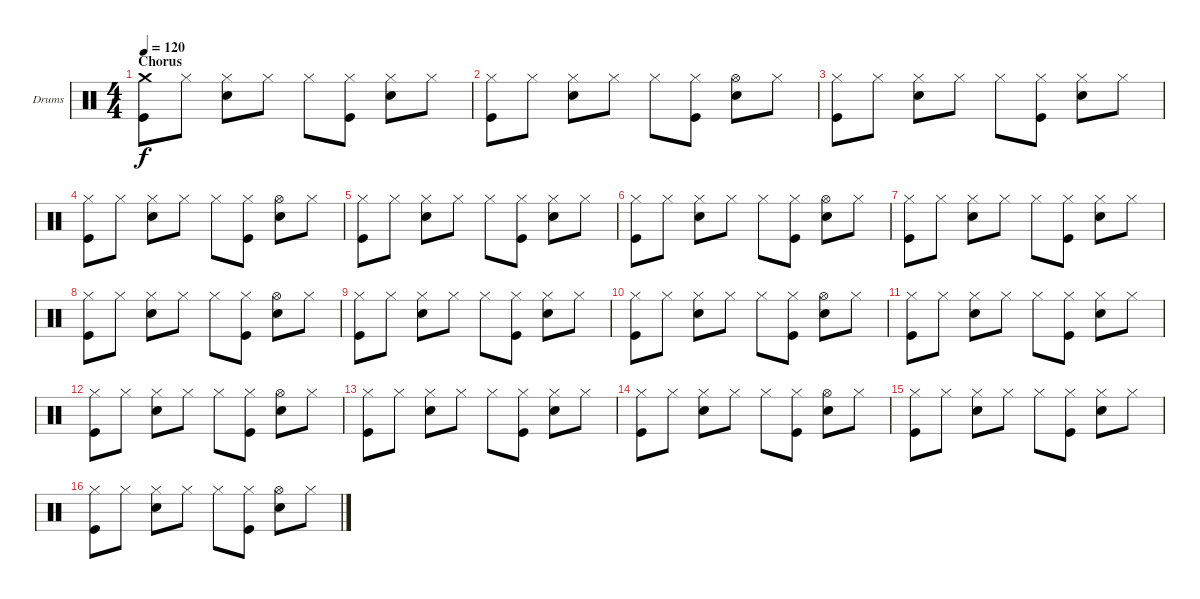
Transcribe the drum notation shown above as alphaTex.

\defaultSystemsLayout 4
\bracketExtendMode groupsimilarinstruments
\firstSystemTrackNameOrientation horizontal
\otherSystemsTrackNameOrientation horizontal
\track ("Drums" "Drums") {instrument percussion}
\staff {score}
\articulation defaults
\ts (4 4)
\section ("" "Chorus")
\tempo 120
\clef neutral
\ks c
("Kick (hit)" "Crash medium (hit)").8{dy f} "Hi-Hat (closed)".8 ("Snare (hit) 2" "Hi-Hat (closed)").8 "Hi-Hat (closed)".8 "Hi-Hat (closed)".8 ("Kick (hit)" "Hi-Hat (closed)").8 ("Snare (hit) 2" "Hi-Hat (closed)").8 "Hi-Hat (closed)".8 |
("Kick (hit)" "Hi-Hat (closed)").8 "Hi-Hat (closed)".8 ("Snare (hit) 2" "Hi-Hat (closed)").8 "Hi-Hat (closed)".8 "Hi-Hat (closed)".8 ("Kick (hit)" "Hi-Hat (closed)").8 ("Snare (hit) 2" "Hi-Hat (open)").8 "Hi-Hat (closed)".8 |
("Kick (hit)" "Hi-Hat (closed)").8 "Hi-Hat (closed)".8 ("Snare (hit) 2" "Hi-Hat (closed)").8 "Hi-Hat (closed)".8 "Hi-Hat (closed)".8 ("Kick (hit)" "Hi-Hat (closed)").8 ("Snare (hit) 2" "Hi-Hat (closed)").8 "Hi-Hat (closed)".8 |
("Kick (hit)" "Hi-Hat (closed)").8 "Hi-Hat (closed)".8 ("Snare (hit) 2" "Hi-Hat (closed)").8 "Hi-Hat (closed)".8 "Hi-Hat (closed)".8 ("Kick (hit)" "Hi-Hat (closed)").8 ("Snare (hit) 2" "Hi-Hat (open)").8 "Hi-Hat (closed)".8 |
("Kick (hit)" "Hi-Hat (closed)").8 "Hi-Hat (closed)".8 ("Snare (hit) 2" "Hi-Hat (closed)").8 "Hi-Hat (closed)".8 "Hi-Hat (closed)".8 ("Kick (hit)" "Hi-Hat (closed)").8 ("Snare (hit) 2" "Hi-Hat (closed)").8 "Hi-Hat (closed)".8 |
("Kick (hit)" "Hi-Hat (closed)").8 "Hi-Hat (closed)".8 ("Snare (hit) 2" "Hi-Hat (closed)").8 "Hi-Hat (closed)".8 "Hi-Hat (closed)".8 ("Kick (hit)" "Hi-Hat (closed)").8 ("Snare (hit) 2" "Hi-Hat (open)").8 "Hi-Hat (closed)".8 |
("Kick (hit)" "Hi-Hat (closed)").8 "Hi-Hat (closed)".8 ("Snare (hit) 2" "Hi-Hat (closed)").8 "Hi-Hat (closed)".8 "Hi-Hat (closed)".8 ("Kick (hit)" "Hi-Hat (closed)").8 ("Snare (hit) 2" "Hi-Hat (closed)").8 "Hi-Hat (closed)".8 |
("Kick (hit)" "Hi-Hat (closed)").8 "Hi-Hat (closed)".8 ("Snare (hit) 2" "Hi-Hat (closed)").8 "Hi-Hat (closed)".8 "Hi-Hat (closed)".8 ("Kick (hit)" "Hi-Hat (closed)").8 ("Snare (hit) 2" "Hi-Hat (open)").8 "Hi-Hat (closed)".8 |
("Kick (hit)" "Hi-Hat (closed)").8 "Hi-Hat (closed)".8 ("Snare (hit) 2" "Hi-Hat (closed)").8 "Hi-Hat (closed)".8 "Hi-Hat (closed)".8 ("Kick (hit)" "Hi-Hat (closed)").8 ("Snare (hit) 2" "Hi-Hat (closed)").8 "Hi-Hat (closed)".8 |
("Kick (hit)" "Hi-Hat (closed)").8 "Hi-Hat (closed)".8 ("Snare (hit) 2" "Hi-Hat (closed)").8 "Hi-Hat (closed)".8 "Hi-Hat (closed)".8 ("Kick (hit)" "Hi-Hat (closed)").8 ("Snare (hit) 2" "Hi-Hat (open)").8 "Hi-Hat (closed)".8 |
("Kick (hit)" "Hi-Hat (closed)").8 "Hi-Hat (closed)".8 ("Snare (hit) 2" "Hi-Hat (closed)").8 "Hi-Hat (closed)".8 "Hi-Hat (closed)".8 ("Kick (hit)" "Hi-Hat (closed)").8 ("Snare (hit) 2" "Hi-Hat (closed)").8 "Hi-Hat (closed)".8 |
("Kick (hit)" "Hi-Hat (closed)").8 "Hi-Hat (closed)".8 ("Snare (hit) 2" "Hi-Hat (closed)").8 "Hi-Hat (closed)".8 "Hi-Hat (closed)".8 ("Kick (hit)" "Hi-Hat (closed)").8 ("Snare (hit) 2" "Hi-Hat (open)").8 "Hi-Hat (closed)".8 |
("Kick (hit)" "Hi-Hat (closed)").8 "Hi-Hat (closed)".8 ("Snare (hit) 2" "Hi-Hat (closed)").8 "Hi-Hat (closed)".8 "Hi-Hat (closed)".8 ("Kick (hit)" "Hi-Hat (closed)").8 ("Snare (hit) 2" "Hi-Hat (closed)").8 "Hi-Hat (closed)".8 |
("Kick (hit)" "Hi-Hat (closed)").8 "Hi-Hat (closed)".8 ("Snare (hit) 2" "Hi-Hat (closed)").8 "Hi-Hat (closed)".8 "Hi-Hat (closed)".8 ("Kick (hit)" "Hi-Hat (closed)").8 ("Snare (hit) 2" "Hi-Hat (open)").8 "Hi-Hat (closed)".8 |
("Kick (hit)" "Hi-Hat (closed)").8 "Hi-Hat (closed)".8 ("Snare (hit) 2" "Hi-Hat (closed)").8 "Hi-Hat (closed)".8 "Hi-Hat (closed)".8 ("Kick (hit)" "Hi-Hat (closed)").8 ("Snare (hit) 2" "Hi-Hat (closed)").8 "Hi-Hat (closed)".8 |
("Kick (hit)" "Hi-Hat (closed)").8 "Hi-Hat (closed)".8 ("Snare (hit) 2" "Hi-Hat (closed)").8 "Hi-Hat (closed)".8 "Hi-Hat (closed)".8 ("Kick (hit)" "Hi-Hat (closed)").8 ("Snare (hit) 2" "Hi-Hat (open)").8 "Hi-Hat (closed)".8
